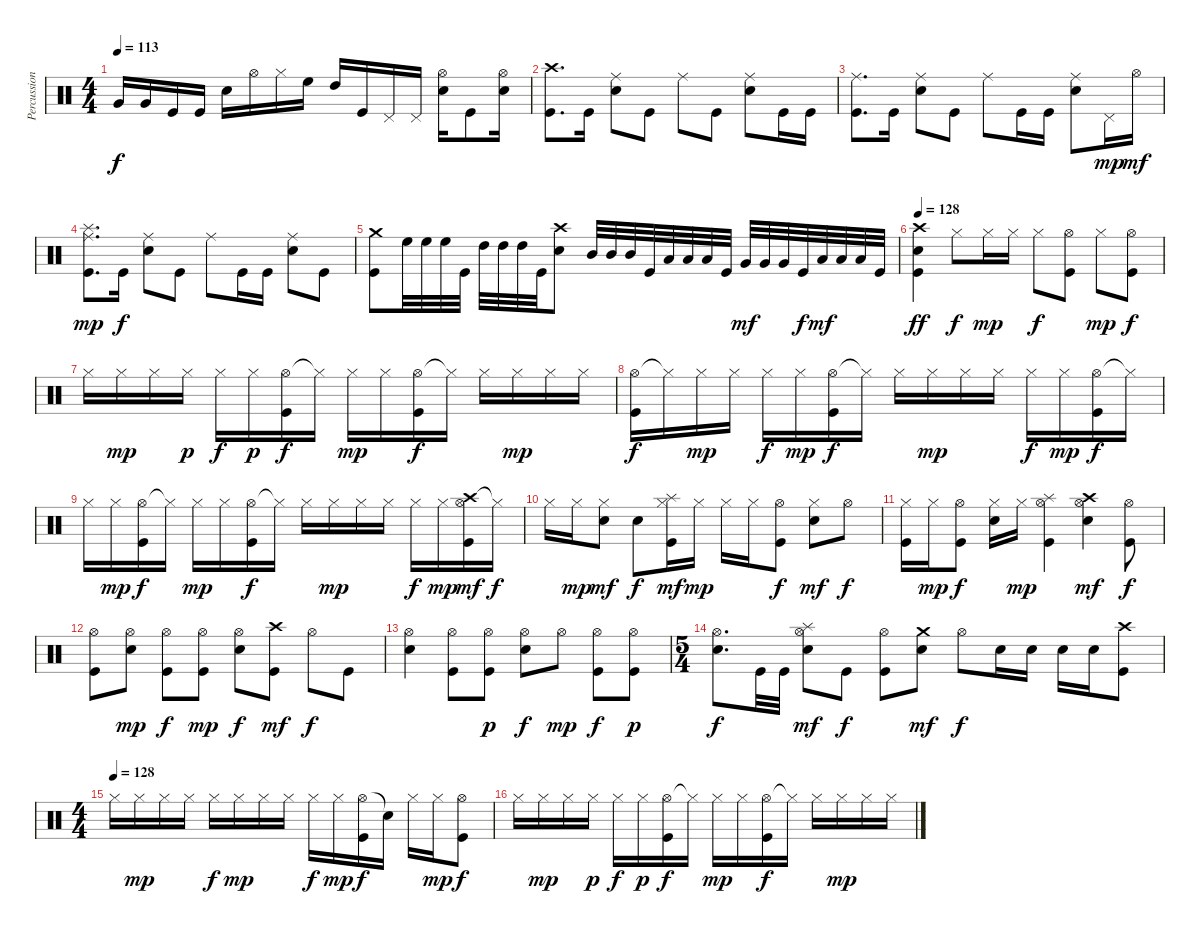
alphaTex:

\track ("Percussioni" "Percussion") {instrument percussion}
\staff {score}
\articulation defaults
\ts (4 4)
\tempo 113
\clef neutral
\ks c "Very Low Tom (hit)".16{dy f} "Very Low Tom (hit)".16 "Kick (hit)".16 "Kick (hit)".16 "Snare (hit) 2".16 "Hi-Hat (open)".16 "Hi-Hat (closed)".16 "High Floor Tom (hit)".16 "High Tom (hit)".16 "Kick (hit)".16 "Pedal Hi-Hat (hit)".16 "Pedal Hi-Hat (hit)".16
("Hi-Hat (open)" "Snare (hit) 2").16 "Kick (hit)".8 ("Hi-Hat (open)" "Snare (hit) 2").16 |
("Crash high (hit)" "Kick (hit)").8{d} "Kick (hit)".16 ("Ride (middle)" "Snare (hit) 2").8 "Kick (hit)".8 "Ride (middle)".8 "Kick (hit)".8 ("Ride (middle)" "Snare (hit) 2").8 "Kick (hit)".16 "Kick (hit)".16 |
("Ride (middle)" "Kick (hit)").8{d} "Kick (hit)".16 ("Ride (middle)" "Snare (hit) 2").8 "Kick (hit)".8 "Ride (middle)".8 "Kick (hit)".16 "Kick (hit)".16 ("Ride (middle)" "Snare (hit) 2").8 "Pedal Hi-Hat (hit)".16{dy mp} "Hi-Hat (open)".16{dy mf} |
("Splash (hit)" "Ride (middle)" "Kick (hit)").8{d dy mp} "Kick (hit)".16{dy f} ("Ride (middle)" "Snare (hit) 2").8 "Kick (hit)".8 "Ride (middle)".8 "Kick (hit)".16 "Kick (hit)".16 ("Ride (middle)" "Snare (hit) 2").8 "Kick (hit)".8 |
("Crash medium (hit)" "Kick (hit)").8 "High Floor Tom (hit)".32 "High Floor Tom (hit)".32 "High Floor Tom (hit)".32 "Kick (hit)".32 "High Tom (hit)".32 "High Tom (hit)".32 "High Tom (hit)".32 "Kick (hit)".32 ("Crash high (hit)" "Snare (hit) 2").8 "Mid Tom (hit)".32 "Mid Tom (hit)".32 "Mid Tom (hit)".32 "Kick (hit)".32 "Low Tom (hit)".32 "Low Tom (hit)".32 "Low Tom (hit)".32 "Kick (hit)".32 "Very Low Tom (hit)".32{dy mf} "Very Low Tom (hit)".32 "Very Low Tom (hit)".32 "Kick (hit)".32{dy f} "Low Floor Tom (hit)".32{dy mf} "Low Floor Tom (hit)".32 "Low Floor Tom (hit)".32 "Kick (hit)".32 |
\tempo 128
("Crash high (hit)" "Snare (hit) 2" "Kick (hit)").4{dy ff} "Hi-Hat (closed)".8{dy f} "Hi-Hat (closed)".16{dy mp} "Hi-Hat (closed)".16 "Hi-Hat (closed)".8{dy f} ("Hi-Hat (open)" "Kick (hit)").8 "Hi-Hat (closed)".8{dy mp} ("Hi-Hat (open)" "Kick (hit)").8{dy f} |
"Hi-Hat (closed)".16 "Hi-Hat (closed)".16{dy mp} "Hi-Hat (closed)".16 "Hi-Hat (closed)".16{dy p} "Hi-Hat (closed)".16{dy f} "Hi-Hat (closed)".16{dy p} ("Hi-Hat (open)" "Kick (hit)").16{dy f} "Hi-Hat (closed)"{t}.16 "Hi-Hat (closed)".16{dy mp} "Hi-Hat (closed)".16 ("Hi-Hat (open)" "Kick (hit)").16{dy f} "Hi-Hat (closed)"{t}.16 "Hi-Hat (closed)".16 "Hi-Hat (closed)".16{dy mp} "Hi-Hat (closed)".16 "Hi-Hat (closed)".16 |
("Hi-Hat (open)" "Kick (hit)").16{dy f} "Hi-Hat (closed)"{t}.16 "Hi-Hat (closed)".16{dy mp} "Hi-Hat (closed)".16 "Hi-Hat (closed)".16{dy f} "Hi-Hat (closed)".16{dy mp} ("Hi-Hat (open)" "Kick (hit)").16{dy f} "Hi-Hat (closed)"{t}.16 "Hi-Hat (closed)".16 "Hi-Hat (closed)".16{dy mp} "Hi-Hat (closed)".16 "Hi-Hat (closed)".16 "Hi-Hat (closed)".16{dy f} "Hi-Hat (closed)".16{dy mp} ("Hi-Hat (open)" "Kick (hit)").16{dy f} "Hi-Hat (closed)"{t}.16 |
"Hi-Hat (closed)".16 "Hi-Hat (closed)".16{dy mp} ("Hi-Hat (open)" "Kick (hit)").16{dy f} "Hi-Hat (closed)"{t}.16 "Hi-Hat (closed)".16{dy mp} "Hi-Hat (closed)".16 ("Hi-Hat (open)" "Kick (hit)").16{dy f} "Hi-Hat (closed)"{t}.16 "Hi-Hat (closed)".16 "Hi-Hat (closed)".16{dy mp} "Hi-Hat (closed)".16 "Hi-Hat (closed)".16 "Hi-Hat (closed)".16{dy f} "Hi-Hat (closed)".16{dy mp} ("Crash high (hit)" "Hi-Hat (open)" "Kick (hit)").16{dy mf} "Hi-Hat (closed)"{t}.16{dy f} |
"Hi-Hat (closed)".16 "Hi-Hat (closed)".16{dy mp} ("Hi-Hat (closed)" "Snare (hit) 2").8{dy mf} "Snare (hit) 2".8{dy f} ("Splash (hit)" "Hi-Hat (closed)" "Kick (hit)").16{dy mf} "Hi-Hat (closed)".16{dy mp} "Hi-Hat (closed)".16 "Hi-Hat (closed)".16 ("Hi-Hat (open)" "Kick (hit)").8{dy f} ("Hi-Hat (closed)" "Snare (hit) 2").8{dy mf} "Hi-Hat (open)".8{dy f} |
("Hi-Hat (closed)" "Kick (hit)").16 "Hi-Hat (closed)".16{dy mp} ("Hi-Hat (open)" "Kick (hit)").8{dy f} ("Hi-Hat (closed)" "Snare (hit) 2").16 "Hi-Hat (closed)".16{dy mp} ("Splash (hit)" "Hi-Hat (open)" "Kick (hit)").4 ("Crash high (hit)" "Hi-Hat (open)" "Snare (hit) 2").4{dy mf} ("Hi-Hat (open)" "Kick (hit)").8{dy f} |
("Hi-Hat (open)" "Kick (hit)").8 ("Hi-Hat (open)" "Snare (hit) 2").8{dy mp} ("Hi-Hat (open)" "Kick (hit)").8{dy f} ("Hi-Hat (open)" "Kick (hit)").8{dy mp} ("Hi-Hat (open)" "Snare (hit) 2").8{dy f} ("Crash high (hit)" "Kick (hit)").8{dy mf} "Hi-Hat (open)".8{dy f} "Kick (hit)".8 |
("Hi-Hat (open)" "Snare (hit) 2").4 ("Hi-Hat (open)" "Kick (hit)").8 ("Hi-Hat (open)" "Kick (hit)").8{dy p} ("Hi-Hat (open)" "Snare (hit) 2").8{dy f} "Hi-Hat (open)".8{dy mp} ("Hi-Hat (open)" "Kick (hit)").8{dy f} ("Hi-Hat (open)" "Kick (hit)").8{dy p} |
\ts (5 4)
("Hi-Hat (open)" "Snare (hit) 2").8{d dy f} "Kick (hit)".32 "Kick (hit)".32 ("Splash (hit)" "Hi-Hat (open)" "Snare (hit) 2").8{dy mf} "Kick (hit)".8{dy f} ("Hi-Hat (open)" "Kick (hit)").8 ("Crash medium (hit)" "Snare (hit) 2").8{dy mf} "Hi-Hat (open)".8{dy f} "Snare (hit) 2".16 "Snare (hit) 2".16 "Snare (hit) 2".16 "Snare (hit) 2".16 ("Crash high (hit)" "Kick (hit)").8 |
\ts (4 4)
\tempo (128)
"Hi-Hat (closed)".16 "Hi-Hat (closed)".16{dy mp} "Hi-Hat (closed)".16 "Hi-Hat (closed)".16 "Hi-Hat (closed)".16{dy f} "Hi-Hat (closed)".16{dy mp} "Hi-Hat (closed)".16 "Hi-Hat (closed)".16 "Hi-Hat (closed)".16{dy f} "Hi-Hat (closed)".16{dy mp} ("Hi-Hat (open)" "Kick (hit)").16{dy f} "Snare (hit)"{t}.16 "Hi-Hat (closed)".16 "Hi-Hat (closed)".16{dy mp} ("Hi-Hat (open)" "Kick (hit)").8{dy f} |
"Hi-Hat (closed)".16 "Hi-Hat (closed)".16{dy mp} "Hi-Hat (closed)".16 "Hi-Hat (closed)".16{dy p} "Hi-Hat (closed)".16{dy f} "Hi-Hat (closed)".16{dy p} ("Hi-Hat (open)" "Kick (hit)").16{dy f} "Hi-Hat (closed)"{t}.16 "Hi-Hat (closed)".16{dy mp} "Hi-Hat (closed)".16 ("Hi-Hat (open)" "Kick (hit)").16{dy f} "Hi-Hat (closed)"{t}.16 "Hi-Hat (closed)".16 "Hi-Hat (closed)".16{dy mp} "Hi-Hat (closed)".16 "Hi-Hat (closed)".16
